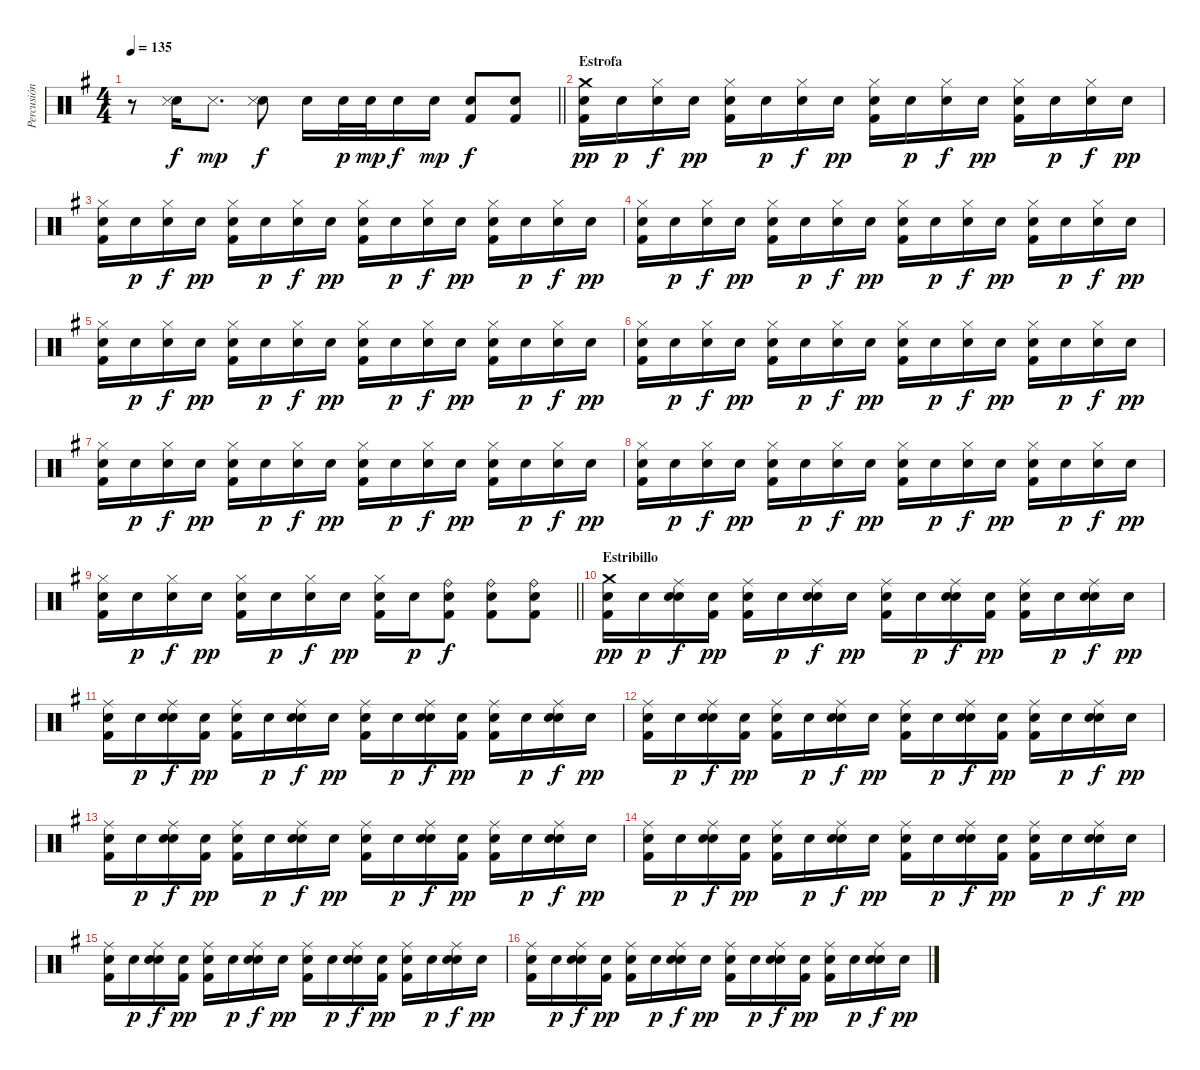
\track ("Percusión" "Percusión") {instrument percussion}
\staff {score}
\articulation defaults
\ts (4 4)
\tempo 135
\clef neutral
\barLineRight lightlight
\ks g
r.8{dy f} ("Hand Clap (hit)" "Snare (side stick) 3").16 "Snare (side stick) 3".8{d dy mp} ("Hand Clap (hit)" "Snare (side stick) 3").8{dy f} "Hand Clap (hit)".16 "Snare (hit) 2".32{dy p} "Snare (hit) 2".32{dy mp} "Snare (hit) 2".16{dy f} "Snare (hit) 2".16{dy mp} ("Snare (hit) 2" "Kick (hit) 2").8{dy f} ("Snare (hit) 2" "Kick (hit) 2").8 |
\section ("" "Estrofa")
("Crash medium (hit)" "Snare (hit) 2" "Kick (hit) 2").16{dy pp} "Snare (hit) 2".16{dy p} ("Hi-Hat (closed)" "Snare (hit) 2").16{dy f} "Snare (hit) 2".16{dy pp} ("Hi-Hat (closed)" "Snare (hit) 2" "Kick (hit) 2").16 "Snare (hit) 2".16{dy p} ("Hi-Hat (closed)" "Snare (hit) 2").16{dy f} "Snare (hit) 2".16{dy pp} ("Hi-Hat (closed)" "Snare (hit) 2" "Kick (hit) 2").16 "Snare (hit) 2".16{dy p} ("Hi-Hat (closed)" "Snare (hit) 2").16{dy f} "Snare (hit) 2".16{dy pp} ("Hi-Hat (closed)" "Snare (hit) 2" "Kick (hit) 2").16 "Snare (hit) 2".16{dy p} ("Hi-Hat (closed)" "Snare (hit) 2").16{dy f} "Snare (hit) 2".16{dy pp} |
("Hi-Hat (closed)" "Snare (hit) 2" "Kick (hit) 2").16 "Snare (hit) 2".16{dy p} ("Hi-Hat (closed)" "Snare (hit) 2").16{dy f} "Snare (hit) 2".16{dy pp} ("Hi-Hat (closed)" "Snare (hit) 2" "Kick (hit) 2").16 "Snare (hit) 2".16{dy p} ("Hi-Hat (closed)" "Snare (hit) 2").16{dy f} "Snare (hit) 2".16{dy pp} ("Hi-Hat (closed)" "Snare (hit) 2" "Kick (hit) 2").16 "Snare (hit) 2".16{dy p} ("Hi-Hat (closed)" "Snare (hit) 2").16{dy f} "Snare (hit) 2".16{dy pp} ("Hi-Hat (closed)" "Snare (hit) 2" "Kick (hit) 2").16 "Snare (hit) 2".16{dy p} ("Hi-Hat (closed)" "Snare (hit) 2").16{dy f} "Snare (hit) 2".16{dy pp} |
("Hi-Hat (closed)" "Snare (hit) 2" "Kick (hit) 2").16 "Snare (hit) 2".16{dy p} ("Hi-Hat (closed)" "Snare (hit) 2").16{dy f} "Snare (hit) 2".16{dy pp} ("Hi-Hat (closed)" "Snare (hit) 2" "Kick (hit) 2").16 "Snare (hit) 2".16{dy p} ("Hi-Hat (closed)" "Snare (hit) 2").16{dy f} "Snare (hit) 2".16{dy pp} ("Hi-Hat (closed)" "Snare (hit) 2" "Kick (hit) 2").16 "Snare (hit) 2".16{dy p} ("Hi-Hat (closed)" "Snare (hit) 2").16{dy f} "Snare (hit) 2".16{dy pp} ("Hi-Hat (closed)" "Snare (hit) 2" "Kick (hit) 2").16 "Snare (hit) 2".16{dy p} ("Hi-Hat (closed)" "Snare (hit) 2").16{dy f} "Snare (hit) 2".16{dy pp} |
("Hi-Hat (closed)" "Snare (hit) 2" "Kick (hit) 2").16 "Snare (hit) 2".16{dy p} ("Hi-Hat (closed)" "Snare (hit) 2").16{dy f} "Snare (hit) 2".16{dy pp} ("Hi-Hat (closed)" "Snare (hit) 2" "Kick (hit) 2").16 "Snare (hit) 2".16{dy p} ("Hi-Hat (closed)" "Snare (hit) 2").16{dy f} "Snare (hit) 2".16{dy pp} ("Hi-Hat (closed)" "Snare (hit) 2" "Kick (hit) 2").16 "Snare (hit) 2".16{dy p} ("Hi-Hat (closed)" "Snare (hit) 2").16{dy f} "Snare (hit) 2".16{dy pp} ("Hi-Hat (closed)" "Snare (hit) 2" "Kick (hit) 2").16 "Snare (hit) 2".16{dy p} ("Hi-Hat (closed)" "Snare (hit) 2").16{dy f} "Snare (hit) 2".16{dy pp} |
("Hi-Hat (closed)" "Snare (hit) 2" "Kick (hit) 2").16 "Snare (hit) 2".16{dy p} ("Hi-Hat (closed)" "Snare (hit) 2").16{dy f} "Snare (hit) 2".16{dy pp} ("Hi-Hat (closed)" "Snare (hit) 2" "Kick (hit) 2").16 "Snare (hit) 2".16{dy p} ("Hi-Hat (closed)" "Snare (hit) 2").16{dy f} "Snare (hit) 2".16{dy pp} ("Hi-Hat (closed)" "Snare (hit) 2" "Kick (hit) 2").16 "Snare (hit) 2".16{dy p} ("Hi-Hat (closed)" "Snare (hit) 2").16{dy f} "Snare (hit) 2".16{dy pp} ("Hi-Hat (closed)" "Snare (hit) 2" "Kick (hit) 2").16 "Snare (hit) 2".16{dy p} ("Hi-Hat (closed)" "Snare (hit) 2").16{dy f} "Snare (hit) 2".16{dy pp} |
("Hi-Hat (closed)" "Snare (hit) 2" "Kick (hit) 2").16 "Snare (hit) 2".16{dy p} ("Hi-Hat (closed)" "Snare (hit) 2").16{dy f} "Snare (hit) 2".16{dy pp} ("Hi-Hat (closed)" "Snare (hit) 2" "Kick (hit) 2").16 "Snare (hit) 2".16{dy p} ("Hi-Hat (closed)" "Snare (hit) 2").16{dy f} "Snare (hit) 2".16{dy pp} ("Hi-Hat (closed)" "Snare (hit) 2" "Kick (hit) 2").16 "Snare (hit) 2".16{dy p} ("Hi-Hat (closed)" "Snare (hit) 2").16{dy f} "Snare (hit) 2".16{dy pp} ("Hi-Hat (closed)" "Snare (hit) 2" "Kick (hit) 2").16 "Snare (hit) 2".16{dy p} ("Hi-Hat (closed)" "Snare (hit) 2").16{dy f} "Snare (hit) 2".16{dy pp} |
("Hi-Hat (closed)" "Snare (hit) 2" "Kick (hit) 2").16 "Snare (hit) 2".16{dy p} ("Hi-Hat (closed)" "Snare (hit) 2").16{dy f} "Snare (hit) 2".16{dy pp} ("Hi-Hat (closed)" "Snare (hit) 2" "Kick (hit) 2").16 "Snare (hit) 2".16{dy p} ("Hi-Hat (closed)" "Snare (hit) 2").16{dy f} "Snare (hit) 2".16{dy pp} ("Hi-Hat (closed)" "Snare (hit) 2" "Kick (hit) 2").16 "Snare (hit) 2".16{dy p} ("Hi-Hat (closed)" "Snare (hit) 2").16{dy f} "Snare (hit) 2".16{dy pp} ("Hi-Hat (closed)" "Snare (hit) 2" "Kick (hit) 2").16 "Snare (hit) 2".16{dy p} ("Hi-Hat (closed)" "Snare (hit) 2").16{dy f} "Snare (hit) 2".16{dy pp} |
\barLineRight lightlight
("Hi-Hat (closed)" "Snare (hit) 2" "Kick (hit) 2").16 "Snare (hit) 2".16{dy p} ("Hi-Hat (closed)" "Snare (hit) 2").16{dy f} "Snare (hit) 2".16{dy pp} ("Hi-Hat (closed)" "Snare (hit) 2" "Kick (hit) 2").16 "Snare (hit) 2".16{dy p} ("Hi-Hat (closed)" "Snare (hit) 2").16{dy f} "Snare (hit) 2".16{dy pp} ("Hi-Hat (closed)" "Snare (hit) 2" "Kick (hit) 2").16 "Snare (hit) 2".16{dy p} ("Ride (bell)" "Snare (hit) 2" "Kick (hit) 2").8{dy f} ("Ride (bell)" "Snare (hit) 2" "Kick (hit) 2").8 ("Ride (bell)" "Snare (hit) 2" "Kick (hit) 2").8 |
\section ("" "Estribillo")
("Crash medium (hit)" "Snare (hit) 2" "Kick (hit) 2").16{dy pp} "Snare (hit) 2".16{dy p} ("Ride (middle)" "Hand Clap (hit)" "Snare (hit) 2").16{dy f} ("Snare (hit) 2" "Kick (hit) 2").16{dy pp} ("Ride (middle)" "Snare (hit) 2" "Kick (hit) 2").16 "Snare (hit) 2".16{dy p} ("Ride (middle)" "Hand Clap (hit)" "Snare (hit) 2").16{dy f} "Snare (hit) 2".16{dy pp} ("Ride (middle)" "Snare (hit) 2" "Kick (hit) 2").16 "Snare (hit) 2".16{dy p} ("Ride (middle)" "Hand Clap (hit)" "Snare (hit) 2").16{dy f} ("Snare (hit) 2" "Kick (hit) 2").16{dy pp} ("Ride (middle)" "Snare (hit) 2" "Kick (hit) 2").16 "Snare (hit) 2".16{dy p} ("Ride (middle)" "Hand Clap (hit)" "Snare (hit) 2").16{dy f} "Snare (hit) 2".16{dy pp} |
("Ride (middle)" "Snare (hit) 2" "Kick (hit) 2").16 "Snare (hit) 2".16{dy p} ("Ride (middle)" "Hand Clap (hit)" "Snare (hit) 2").16{dy f} ("Snare (hit) 2" "Kick (hit) 2").16{dy pp} ("Ride (middle)" "Snare (hit) 2" "Kick (hit) 2").16 "Snare (hit) 2".16{dy p} ("Ride (middle)" "Hand Clap (hit)" "Snare (hit) 2").16{dy f} "Snare (hit) 2".16{dy pp} ("Ride (middle)" "Snare (hit) 2" "Kick (hit) 2").16 "Snare (hit) 2".16{dy p} ("Ride (middle)" "Hand Clap (hit)" "Snare (hit) 2").16{dy f} ("Snare (hit) 2" "Kick (hit) 2").16{dy pp} ("Ride (middle)" "Snare (hit) 2" "Kick (hit) 2").16 "Snare (hit) 2".16{dy p} ("Ride (middle)" "Hand Clap (hit)" "Snare (hit) 2").16{dy f} "Snare (hit) 2".16{dy pp} |
("Ride (middle)" "Snare (hit) 2" "Kick (hit) 2").16 "Snare (hit) 2".16{dy p} ("Ride (middle)" "Hand Clap (hit)" "Snare (hit) 2").16{dy f} ("Snare (hit) 2" "Kick (hit) 2").16{dy pp} ("Ride (middle)" "Snare (hit) 2" "Kick (hit) 2").16 "Snare (hit) 2".16{dy p} ("Ride (middle)" "Hand Clap (hit)" "Snare (hit) 2").16{dy f} "Snare (hit) 2".16{dy pp} ("Ride (middle)" "Snare (hit) 2" "Kick (hit) 2").16 "Snare (hit) 2".16{dy p} ("Ride (middle)" "Hand Clap (hit)" "Snare (hit) 2").16{dy f} ("Snare (hit) 2" "Kick (hit) 2").16{dy pp} ("Ride (middle)" "Snare (hit) 2" "Kick (hit) 2").16 "Snare (hit) 2".16{dy p} ("Ride (middle)" "Hand Clap (hit)" "Snare (hit) 2").16{dy f} "Snare (hit) 2".16{dy pp} |
("Ride (middle)" "Snare (hit) 2" "Kick (hit) 2").16 "Snare (hit) 2".16{dy p} ("Ride (middle)" "Hand Clap (hit)" "Snare (hit) 2").16{dy f} ("Snare (hit) 2" "Kick (hit) 2").16{dy pp} ("Ride (middle)" "Snare (hit) 2" "Kick (hit) 2").16 "Snare (hit) 2".16{dy p} ("Ride (middle)" "Hand Clap (hit)" "Snare (hit) 2").16{dy f} "Snare (hit) 2".16{dy pp} ("Ride (middle)" "Snare (hit) 2" "Kick (hit) 2").16 "Snare (hit) 2".16{dy p} ("Ride (middle)" "Hand Clap (hit)" "Snare (hit) 2").16{dy f} ("Snare (hit) 2" "Kick (hit) 2").16{dy pp} ("Ride (middle)" "Snare (hit) 2" "Kick (hit) 2").16 "Snare (hit) 2".16{dy p} ("Ride (middle)" "Hand Clap (hit)" "Snare (hit) 2").16{dy f} "Snare (hit) 2".16{dy pp} |
("Ride (middle)" "Snare (hit) 2" "Kick (hit) 2").16 "Snare (hit) 2".16{dy p} ("Ride (middle)" "Hand Clap (hit)" "Snare (hit) 2").16{dy f} ("Snare (hit) 2" "Kick (hit) 2").16{dy pp} ("Ride (middle)" "Snare (hit) 2" "Kick (hit) 2").16 "Snare (hit) 2".16{dy p} ("Ride (middle)" "Hand Clap (hit)" "Snare (hit) 2").16{dy f} "Snare (hit) 2".16{dy pp} ("Ride (middle)" "Snare (hit) 2" "Kick (hit) 2").16 "Snare (hit) 2".16{dy p} ("Ride (middle)" "Hand Clap (hit)" "Snare (hit) 2").16{dy f} ("Snare (hit) 2" "Kick (hit) 2").16{dy pp} ("Ride (middle)" "Snare (hit) 2" "Kick (hit) 2").16 "Snare (hit) 2".16{dy p} ("Ride (middle)" "Hand Clap (hit)" "Snare (hit) 2").16{dy f} "Snare (hit) 2".16{dy pp} |
("Ride (middle)" "Snare (hit) 2" "Kick (hit) 2").16 "Snare (hit) 2".16{dy p} ("Ride (middle)" "Hand Clap (hit)" "Snare (hit) 2").16{dy f} ("Snare (hit) 2" "Kick (hit) 2").16{dy pp} ("Ride (middle)" "Snare (hit) 2" "Kick (hit) 2").16 "Snare (hit) 2".16{dy p} ("Ride (middle)" "Hand Clap (hit)" "Snare (hit) 2").16{dy f} "Snare (hit) 2".16{dy pp} ("Ride (middle)" "Snare (hit) 2" "Kick (hit) 2").16 "Snare (hit) 2".16{dy p} ("Ride (middle)" "Hand Clap (hit)" "Snare (hit) 2").16{dy f} ("Snare (hit) 2" "Kick (hit) 2").16{dy pp} ("Ride (middle)" "Snare (hit) 2" "Kick (hit) 2").16 "Snare (hit) 2".16{dy p} ("Ride (middle)" "Hand Clap (hit)" "Snare (hit) 2").16{dy f} "Snare (hit) 2".16{dy pp} |
("Ride (middle)" "Snare (hit) 2" "Kick (hit) 2").16 "Snare (hit) 2".16{dy p} ("Ride (middle)" "Hand Clap (hit)" "Snare (hit) 2").16{dy f} ("Snare (hit) 2" "Kick (hit) 2").16{dy pp} ("Ride (middle)" "Snare (hit) 2" "Kick (hit) 2").16 "Snare (hit) 2".16{dy p} ("Ride (middle)" "Hand Clap (hit)" "Snare (hit) 2").16{dy f} "Snare (hit) 2".16{dy pp} ("Ride (middle)" "Snare (hit) 2" "Kick (hit) 2").16 "Snare (hit) 2".16{dy p} ("Ride (middle)" "Hand Clap (hit)" "Snare (hit) 2").16{dy f} ("Snare (hit) 2" "Kick (hit) 2").16{dy pp} ("Ride (middle)" "Snare (hit) 2" "Kick (hit) 2").16 "Snare (hit) 2".16{dy p} ("Ride (middle)" "Hand Clap (hit)" "Snare (hit) 2").16{dy f} "Snare (hit) 2".16{dy pp}
